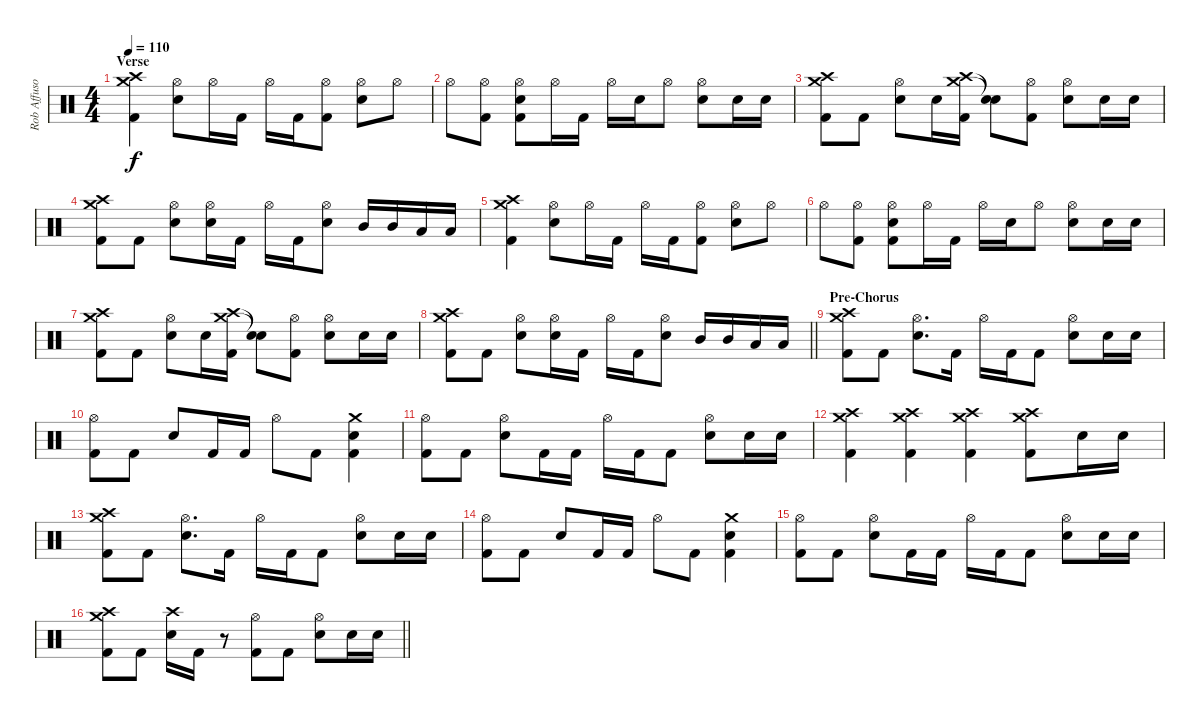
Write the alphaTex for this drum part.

\track ("Rob Affuso - Drums" "Rob Affuso") {instrument percussion}
\staff {score}
\articulation defaults
\ts (4 4)
\section ("" "Verse")
\tempo 110
\clef neutral
\ks c
("Crash medium (hit)" "Crash high (hit)" "Kick (hit) 2").4{dy f} ("Hi-Hat (open)" "Snare (hit) 2").8 "Hi-Hat (open)".16 "Kick (hit) 2".16 "Hi-Hat (open)".16 "Kick (hit) 2".16 ("Hi-Hat (open)" "Kick (hit) 2").8 ("Hi-Hat (open)" "Snare (hit) 2").8 "Hi-Hat (open)".8 |
"Hi-Hat (open)".8 ("Hi-Hat (open)" "Kick (hit) 2").8 ("Hi-Hat (open)" "Snare (hit) 2" "Kick (hit) 2").8 "Hi-Hat (open)".16 "Kick (hit) 2".16 "Hi-Hat (open)".16 "Snare (hit) 2".16 "Hi-Hat (open)".8 ("Hi-Hat (open)" "Snare (hit) 2").8 "Snare (hit) 2".16 "Snare (hit) 2".16 |
("Crash medium (hit)" "Crash high (hit)" "Kick (hit) 2").8 "Kick (hit) 2".8 ("Hi-Hat (open)" "Snare (hit) 2").8 "Snare (hit) 2".16 ("Crash medium (hit)" "Crash high (hit)" "Kick (hit) 2").16 ("Snare (hit)"{t} "Snare (hit)"{t}).8 ("Hi-Hat (open)" "Kick (hit) 2").8 ("Hi-Hat (open)" "Snare (hit) 2").8 "Snare (hit) 2".16 "Snare (hit) 2".16 |
("Crash medium (hit)" "Crash high (hit)" "Kick (hit) 2").8 "Kick (hit) 2".8 ("Hi-Hat (open)" "Snare (hit) 2").8 ("Hi-Hat (open)" "Snare (hit) 2").16 "Kick (hit) 2".16 "Hi-Hat (open)".16 "Kick (hit) 2".16 ("Hi-Hat (open)" "Snare (hit) 2").8 "Mid Tom (hit)".16 "Mid Tom (hit)".16 "Low Tom (hit)".16 "Low Tom (hit)".16 |
("Crash medium (hit)" "Crash high (hit)" "Kick (hit) 2").4 ("Hi-Hat (open)" "Snare (hit) 2").8 "Hi-Hat (open)".16 "Kick (hit) 2".16 "Hi-Hat (open)".16 "Kick (hit) 2".16 ("Hi-Hat (open)" "Kick (hit) 2").8 ("Hi-Hat (open)" "Snare (hit) 2").8 "Hi-Hat (open)".8 |
"Hi-Hat (open)".8 ("Hi-Hat (open)" "Kick (hit) 2").8 ("Hi-Hat (open)" "Snare (hit) 2" "Kick (hit) 2").8 "Hi-Hat (open)".16 "Kick (hit) 2".16 "Hi-Hat (open)".16 "Snare (hit) 2".16 "Hi-Hat (open)".8 ("Hi-Hat (open)" "Snare (hit) 2").8 "Snare (hit) 2".16 "Snare (hit) 2".16 |
("Crash medium (hit)" "Crash high (hit)" "Kick (hit) 2").8 "Kick (hit) 2".8 ("Hi-Hat (open)" "Snare (hit) 2").8 "Snare (hit) 2".16 ("Crash medium (hit)" "Crash high (hit)" "Kick (hit) 2").16 ("Snare (hit)"{t} "Snare (hit)"{t}).8 ("Hi-Hat (open)" "Kick (hit) 2").8 ("Hi-Hat (open)" "Snare (hit) 2").8 "Snare (hit) 2".16 "Snare (hit) 2".16 |
\barLineRight lightlight
("Crash medium (hit)" "Crash high (hit)" "Kick (hit) 2").8 "Kick (hit) 2".8 ("Hi-Hat (open)" "Snare (hit) 2").8 ("Hi-Hat (open)" "Snare (hit) 2").16 "Kick (hit) 2".16 "Hi-Hat (open)".16 "Kick (hit) 2".16 ("Hi-Hat (open)" "Snare (hit) 2").8 "Mid Tom (hit)".16 "Mid Tom (hit)".16 "Low Tom (hit)".16 "Low Tom (hit)".16 |
\section ("" "Pre-Chorus")
("Crash medium (hit)" "Crash high (hit)" "Kick (hit) 2").8 "Kick (hit) 2".8 ("Hi-Hat (open)" "Snare (hit) 2").8{d} "Kick (hit) 2".16 "Hi-Hat (open)".16 "Kick (hit) 2".16 "Kick (hit) 2".8 ("Hi-Hat (open)" "Snare (hit) 2").8 "Snare (hit) 2".16 "Snare (hit) 2".16 |
("Hi-Hat (open)" "Kick (hit) 2").8 "Kick (hit) 2".8 "Snare (hit) 2".8 "Kick (hit) 2".16 "Kick (hit) 2".16 "Hi-Hat (open)".8 "Kick (hit) 2".8 ("Crash medium (hit)" "Snare (hit) 2" "Kick (hit) 2").4 |
("Hi-Hat (open)" "Kick (hit) 2").8 "Kick (hit) 2".8 ("Hi-Hat (open)" "Snare (hit) 2").8 "Kick (hit) 2".16 "Kick (hit) 2".16 "Hi-Hat (open)".16 "Kick (hit) 2".16 "Kick (hit) 2".8 ("Hi-Hat (open)" "Snare (hit) 2").8 "Snare (hit) 2".16 "Snare (hit) 2".16 |
("Crash medium (hit)" "Crash high (hit)" "Kick (hit) 2").4 ("Crash high (hit)" "Crash medium (hit)" "Kick (hit) 2").4 ("Crash medium (hit)" "Crash high (hit)" "Kick (hit) 2").4 ("Crash high (hit)" "Crash medium (hit)" "Kick (hit) 2").8 "Snare (hit) 2".16 "Snare (hit) 2".16 |
("Crash medium (hit)" "Crash high (hit)" "Kick (hit) 2").8 "Kick (hit) 2".8 ("Hi-Hat (open)" "Snare (hit) 2").8{d} "Kick (hit) 2".16 "Hi-Hat (open)".16 "Kick (hit) 2".16 "Kick (hit) 2".8 ("Hi-Hat (open)" "Snare (hit) 2").8 "Snare (hit) 2".16 "Snare (hit) 2".16 |
("Hi-Hat (open)" "Kick (hit) 2").8 "Kick (hit) 2".8 "Snare (hit) 2".8 "Kick (hit) 2".16 "Kick (hit) 2".16 "Hi-Hat (open)".8 "Kick (hit) 2".8 ("Crash medium (hit)" "Snare (hit) 2" "Kick (hit) 2").4 |
("Hi-Hat (open)" "Kick (hit) 2").8 "Kick (hit) 2".8 ("Hi-Hat (open)" "Snare (hit) 2").8 "Kick (hit) 2".16 "Kick (hit) 2".16 "Hi-Hat (open)".16 "Kick (hit) 2".16 "Kick (hit) 2".8 ("Hi-Hat (open)" "Snare (hit) 2").8 "Snare (hit) 2".16 "Snare (hit) 2".16 |
\barLineRight lightlight
("Crash medium (hit)" "Crash high (hit)" "Kick (hit) 2").8 "Kick (hit) 2".8 ("Crash high (hit)" "Snare (hit) 2").16 "Kick (hit) 2".16 r.8 ("Hi-Hat (open)" "Kick (hit) 2").8 "Kick (hit) 2".8 ("Hi-Hat (open)" "Snare (hit) 2").8 "Snare (hit) 2".16 "Snare (hit) 2".16
